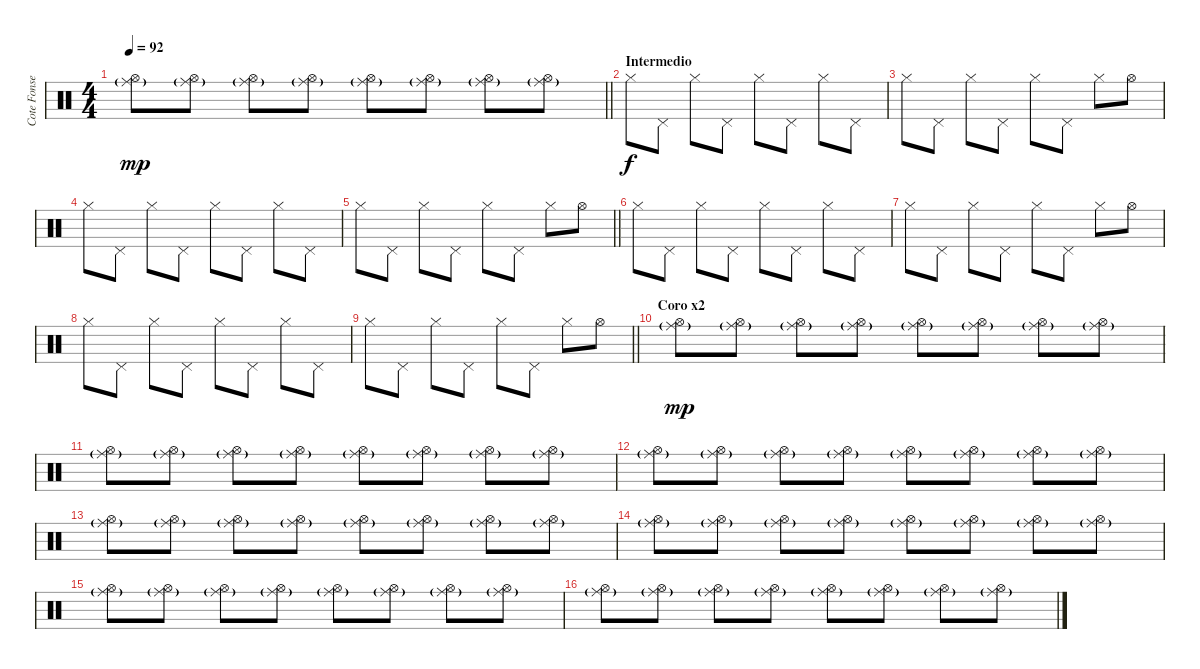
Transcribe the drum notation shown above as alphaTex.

\track ("Cote Fonsea" "Cote Fonse") {instrument percussion}
\staff {score}
\articulation defaults
\ts (4 4)
\tempo 92
\clef neutral
\barLineRight lightlight
\ks c
("Ride (middle)"{g} "Hi-Hat (open)").8{dy mp} ("Ride (middle)"{g} "Hi-Hat (open)").8 ("Ride (middle)"{g} "Hi-Hat (open)").8 ("Ride (middle)"{g} "Hi-Hat (open)").8 ("Ride (middle)"{g} "Hi-Hat (open)").8 ("Ride (middle)"{g} "Hi-Hat (open)").8 ("Ride (middle)"{g} "Hi-Hat (open)").8 ("Ride (middle)"{g} "Hi-Hat (open)").8 |
\section ("" "Intermedio")
"Hi-Hat (closed)".8{dy f} "Pedal Hi-Hat (hit)".8 "Hi-Hat (closed)".8 "Pedal Hi-Hat (hit)".8 "Hi-Hat (closed)".8 "Pedal Hi-Hat (hit)".8 "Hi-Hat (closed)".8 "Pedal Hi-Hat (hit)".8 |
"Hi-Hat (closed)".8 "Pedal Hi-Hat (hit)".8 "Hi-Hat (closed)".8 "Pedal Hi-Hat (hit)".8 "Hi-Hat (closed)".8 "Pedal Hi-Hat (hit)".8 "Hi-Hat (closed)".8 "Hi-Hat (open)".8 |
"Hi-Hat (closed)".8 "Pedal Hi-Hat (hit)".8 "Hi-Hat (closed)".8 "Pedal Hi-Hat (hit)".8 "Hi-Hat (closed)".8 "Pedal Hi-Hat (hit)".8 "Hi-Hat (closed)".8 "Pedal Hi-Hat (hit)".8 |
\barLineRight lightlight "Hi-Hat (closed)".8 "Pedal Hi-Hat (hit)".8 "Hi-Hat (closed)".8 "Pedal Hi-Hat (hit)".8 "Hi-Hat (closed)".8 "Pedal Hi-Hat (hit)".8 "Hi-Hat (closed)".8 "Hi-Hat (open)".8
|
"Hi-Hat (closed)".8 "Pedal Hi-Hat (hit)".8 "Hi-Hat (closed)".8 "Pedal Hi-Hat (hit)".8 "Hi-Hat (closed)".8 "Pedal Hi-Hat (hit)".8 "Hi-Hat (closed)".8 "Pedal Hi-Hat (hit)".8 |
"Hi-Hat (closed)".8 "Pedal Hi-Hat (hit)".8 "Hi-Hat (closed)".8 "Pedal Hi-Hat (hit)".8 "Hi-Hat (closed)".8 "Pedal Hi-Hat (hit)".8 "Hi-Hat (closed)".8 "Hi-Hat (open)".8 |
"Hi-Hat (closed)".8 "Pedal Hi-Hat (hit)".8 "Hi-Hat (closed)".8 "Pedal Hi-Hat (hit)".8 "Hi-Hat (closed)".8 "Pedal Hi-Hat (hit)".8 "Hi-Hat (closed)".8 "Pedal Hi-Hat (hit)".8 |
\barLineRight lightlight "Hi-Hat (closed)".8 "Pedal Hi-Hat (hit)".8 "Hi-Hat (closed)".8 "Pedal Hi-Hat (hit)".8 "Hi-Hat (closed)".8 "Pedal Hi-Hat (hit)".8 "Hi-Hat (closed)".8 "Hi-Hat (open)".8
|
\section ("" "Coro x2")
("Ride (middle)"{g} "Hi-Hat (open)").8{dy mp} ("Ride (middle)"{g} "Hi-Hat (open)").8 ("Ride (middle)"{g} "Hi-Hat (open)").8 ("Ride (middle)"{g} "Hi-Hat (open)").8 ("Ride (middle)"{g} "Hi-Hat (open)").8 ("Ride (middle)"{g} "Hi-Hat (open)").8 ("Ride (middle)"{g} "Hi-Hat (open)").8 ("Ride (middle)"{g} "Hi-Hat (open)").8 |
("Ride (middle)"{g} "Hi-Hat (open)").8 ("Ride (middle)"{g} "Hi-Hat (open)").8 ("Ride (middle)"{g} "Hi-Hat (open)").8 ("Ride (middle)"{g} "Hi-Hat (open)").8 ("Ride (middle)"{g} "Hi-Hat (open)").8 ("Ride (middle)"{g} "Hi-Hat (open)").8 ("Ride (middle)"{g} "Hi-Hat (open)").8 ("Ride (middle)"{g} "Hi-Hat (open)").8 |
("Ride (middle)"{g} "Hi-Hat (open)").8 ("Ride (middle)"{g} "Hi-Hat (open)").8 ("Ride (middle)"{g} "Hi-Hat (open)").8 ("Ride (middle)"{g} "Hi-Hat (open)").8 ("Ride (middle)"{g} "Hi-Hat (open)").8 ("Ride (middle)"{g} "Hi-Hat (open)").8 ("Ride (middle)"{g} "Hi-Hat (open)").8 ("Ride (middle)"{g} "Hi-Hat (open)").8 |
("Ride (middle)"{g} "Hi-Hat (open)").8 ("Ride (middle)"{g} "Hi-Hat (open)").8 ("Ride (middle)"{g} "Hi-Hat (open)").8 ("Ride (middle)"{g} "Hi-Hat (open)").8 ("Ride (middle)"{g} "Hi-Hat (open)").8 ("Ride (middle)"{g} "Hi-Hat (open)").8 ("Ride (middle)"{g} "Hi-Hat (open)").8 ("Ride (middle)"{g} "Hi-Hat (open)").8 |
("Ride (middle)"{g} "Hi-Hat (open)").8 ("Ride (middle)"{g} "Hi-Hat (open)").8 ("Ride (middle)"{g} "Hi-Hat (open)").8 ("Ride (middle)"{g} "Hi-Hat (open)").8 ("Ride (middle)"{g} "Hi-Hat (open)").8 ("Ride (middle)"{g} "Hi-Hat (open)").8 ("Ride (middle)"{g} "Hi-Hat (open)").8 ("Ride (middle)"{g} "Hi-Hat (open)").8 |
("Ride (middle)"{g} "Hi-Hat (open)").8 ("Ride (middle)"{g} "Hi-Hat (open)").8 ("Ride (middle)"{g} "Hi-Hat (open)").8 ("Ride (middle)"{g} "Hi-Hat (open)").8 ("Ride (middle)"{g} "Hi-Hat (open)").8 ("Ride (middle)"{g} "Hi-Hat (open)").8 ("Ride (middle)"{g} "Hi-Hat (open)").8 ("Ride (middle)"{g} "Hi-Hat (open)").8 |
("Ride (middle)"{g} "Hi-Hat (open)").8 ("Ride (middle)"{g} "Hi-Hat (open)").8 ("Ride (middle)"{g} "Hi-Hat (open)").8 ("Ride (middle)"{g} "Hi-Hat (open)").8 ("Ride (middle)"{g} "Hi-Hat (open)").8 ("Ride (middle)"{g} "Hi-Hat (open)").8 ("Ride (middle)"{g} "Hi-Hat (open)").8 ("Ride (middle)"{g} "Hi-Hat (open)").8
